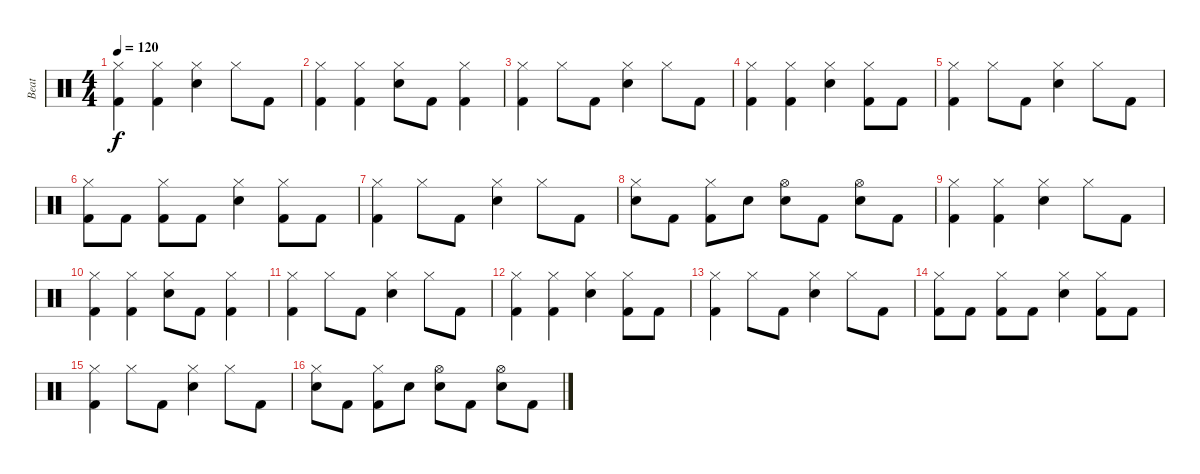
\track ("Beat" "Beat") {instrument percussion}
\staff {score}
\articulation defaults
\ts (4 4)
\tempo 120
\clef neutral
\ks c
("Hi-Hat (closed)" "Kick (hit) 2").4{dy f} ("Hi-Hat (closed)" "Kick (hit) 2").4 ("Hi-Hat (closed)" "Snare (hit) 2").4 "Hi-Hat (closed)".8 "Kick (hit) 2".8 |
("Hi-Hat (closed)" "Kick (hit) 2").4 ("Hi-Hat (closed)" "Kick (hit) 2").4 ("Hi-Hat (closed)" "Snare (hit) 2").8 "Kick (hit) 2".8 ("Hi-Hat (closed)" "Kick (hit) 2").4 |
("Hi-Hat (closed)" "Kick (hit) 2").4 "Hi-Hat (closed)".8 "Kick (hit) 2".8 ("Hi-Hat (closed)" "Snare (hit) 2").4 "Hi-Hat (closed)".8 "Kick (hit) 2".8 |
("Hi-Hat (closed)" "Kick (hit) 2").4 ("Hi-Hat (closed)" "Kick (hit) 2").4 ("Hi-Hat (closed)" "Snare (hit) 2").4 ("Hi-Hat (closed)" "Kick (hit) 2").8 "Kick (hit) 2".8 |
("Hi-Hat (closed)" "Kick (hit) 2").4 "Hi-Hat (closed)".8 "Kick (hit) 2".8 ("Hi-Hat (closed)" "Snare (hit) 2").4 "Hi-Hat (closed)".8 "Kick (hit) 2".8 |
("Hi-Hat (closed)" "Kick (hit) 2").8 "Kick (hit) 2".8 ("Hi-Hat (closed)" "Kick (hit) 2").8 "Kick (hit) 2".8 ("Hi-Hat (closed)" "Snare (hit) 2").4 ("Hi-Hat (closed)" "Kick (hit) 2").8 "Kick (hit) 2".8 |
("Hi-Hat (closed)" "Kick (hit) 2").4 "Hi-Hat (closed)".8 "Kick (hit) 2".8 ("Hi-Hat (closed)" "Snare (hit) 2").4 "Hi-Hat (closed)".8 "Kick (hit) 2".8 |
("Hi-Hat (closed)" "Snare (hit) 2").8 "Kick (hit) 2".8 ("Hi-Hat (closed)" "Kick (hit) 2").8 "Snare (hit) 2".8 ("Hi-Hat (open)" "Snare (hit) 2").8 "Kick (hit) 2".8 ("Hi-Hat (open)" "Snare (hit) 2").8 "Kick (hit) 2".8 |
("Hi-Hat (closed)" "Kick (hit) 2").4 ("Hi-Hat (closed)" "Kick (hit) 2").4 ("Hi-Hat (closed)" "Snare (hit) 2").4 "Hi-Hat (closed)".8 "Kick (hit) 2".8 |
("Hi-Hat (closed)" "Kick (hit) 2").4 ("Hi-Hat (closed)" "Kick (hit) 2").4 ("Hi-Hat (closed)" "Snare (hit) 2").8 "Kick (hit) 2".8 ("Hi-Hat (closed)" "Kick (hit) 2").4 |
("Hi-Hat (closed)" "Kick (hit) 2").4 "Hi-Hat (closed)".8 "Kick (hit) 2".8 ("Hi-Hat (closed)" "Snare (hit) 2").4 "Hi-Hat (closed)".8 "Kick (hit) 2".8 |
("Hi-Hat (closed)" "Kick (hit) 2").4 ("Hi-Hat (closed)" "Kick (hit) 2").4 ("Hi-Hat (closed)" "Snare (hit) 2").4 ("Hi-Hat (closed)" "Kick (hit) 2").8 "Kick (hit) 2".8 |
("Hi-Hat (closed)" "Kick (hit) 2").4 "Hi-Hat (closed)".8 "Kick (hit) 2".8 ("Hi-Hat (closed)" "Snare (hit) 2").4 "Hi-Hat (closed)".8 "Kick (hit) 2".8 |
("Hi-Hat (closed)" "Kick (hit) 2").8 "Kick (hit) 2".8 ("Hi-Hat (closed)" "Kick (hit) 2").8 "Kick (hit) 2".8 ("Hi-Hat (closed)" "Snare (hit) 2").4 ("Hi-Hat (closed)" "Kick (hit) 2").8 "Kick (hit) 2".8 |
("Hi-Hat (closed)" "Kick (hit) 2").4 "Hi-Hat (closed)".8 "Kick (hit) 2".8 ("Hi-Hat (closed)" "Snare (hit) 2").4 "Hi-Hat (closed)".8 "Kick (hit) 2".8 |
("Hi-Hat (closed)" "Snare (hit) 2").8 "Kick (hit) 2".8 ("Hi-Hat (closed)" "Kick (hit) 2").8 "Snare (hit) 2".8 ("Hi-Hat (open)" "Snare (hit) 2").8 "Kick (hit) 2".8 ("Hi-Hat (open)" "Snare (hit) 2").8 "Kick (hit) 2".8
